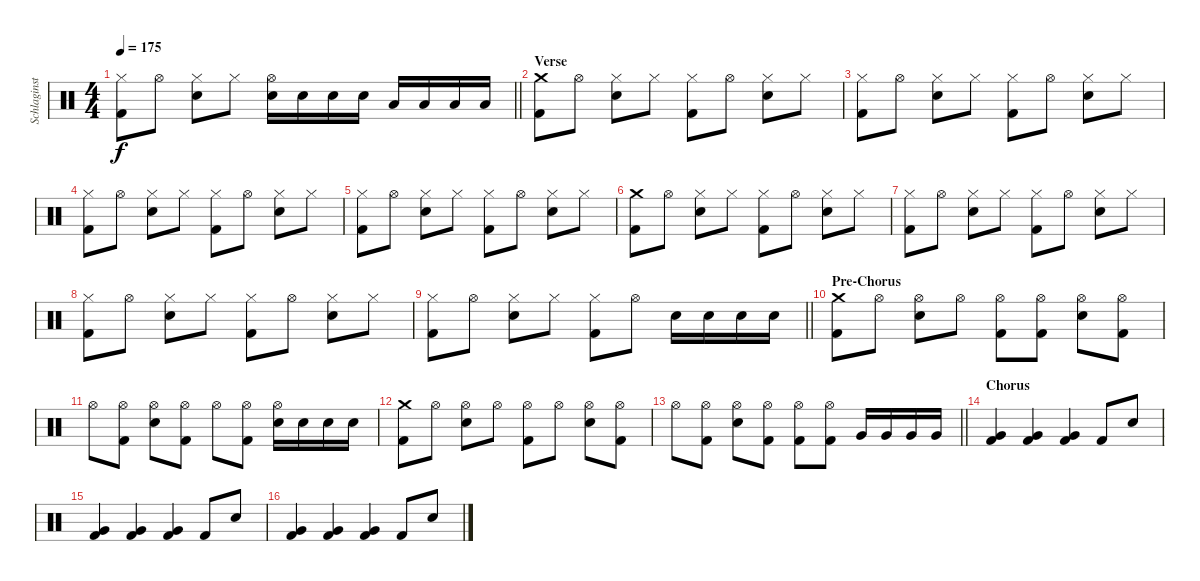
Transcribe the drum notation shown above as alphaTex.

\track ("Schlaginstrumente - Auswahl" "Schlaginst") {instrument percussion}
\staff {score}
\articulation defaults
\ts (4 4)
\tempo 175
\clef neutral
\barLineRight lightlight
\ks c
("Hi-Hat (closed)" "Kick (hit) 2").8{dy f} "Hi-Hat (open)".8 ("Hi-Hat (closed)" "Snare (hit) 2").8 "Hi-Hat (closed)".8 ("Hi-Hat (open)" "Snare (hit) 2").16 "Snare (hit) 2".16 "Snare (hit) 2".16 "Snare (hit) 2".16 "Low Tom (hit)".16 "Low Tom (hit)".16 "Low Tom (hit)".16 "Low Tom (hit)".16 |
\section ("" "Verse")
("Crash medium (hit)" "Kick (hit) 2").8 "Hi-Hat (open)".8 ("Hi-Hat (closed)" "Snare (hit) 2").8 "Hi-Hat (closed)".8 ("Hi-Hat (closed)" "Kick (hit) 2").8 "Hi-Hat (open)".8 ("Hi-Hat (closed)" "Snare (hit) 2").8 "Hi-Hat (closed)".8 |
("Hi-Hat (closed)" "Kick (hit) 2").8 "Hi-Hat (open)".8 ("Hi-Hat (closed)" "Snare (hit) 2").8 "Hi-Hat (closed)".8 ("Hi-Hat (closed)" "Kick (hit) 2").8 "Hi-Hat (open)".8 ("Hi-Hat (closed)" "Snare (hit) 2").8 "Hi-Hat (closed)".8 |
("Hi-Hat (closed)" "Kick (hit) 2").8 "Hi-Hat (open)".8 ("Hi-Hat (closed)" "Snare (hit) 2").8 "Hi-Hat (closed)".8 ("Hi-Hat (closed)" "Kick (hit) 2").8 "Hi-Hat (open)".8 ("Hi-Hat (closed)" "Snare (hit) 2").8 "Hi-Hat (closed)".8 |
("Hi-Hat (closed)" "Kick (hit) 2").8 "Hi-Hat (open)".8 ("Hi-Hat (closed)" "Snare (hit) 2").8 "Hi-Hat (closed)".8 ("Hi-Hat (closed)" "Kick (hit) 2").8 "Hi-Hat (open)".8 ("Hi-Hat (closed)" "Snare (hit) 2").8 "Hi-Hat (closed)".8 |
("Crash medium (hit)" "Kick (hit) 2").8 "Hi-Hat (open)".8 ("Hi-Hat (closed)" "Snare (hit) 2").8 "Hi-Hat (closed)".8 ("Hi-Hat (closed)" "Kick (hit) 2").8 "Hi-Hat (open)".8 ("Hi-Hat (closed)" "Snare (hit) 2").8 "Hi-Hat (closed)".8 |
("Hi-Hat (closed)" "Kick (hit) 2").8 "Hi-Hat (open)".8 ("Hi-Hat (closed)" "Snare (hit) 2").8 "Hi-Hat (closed)".8 ("Hi-Hat (closed)" "Kick (hit) 2").8 "Hi-Hat (open)".8 ("Hi-Hat (closed)" "Snare (hit) 2").8 "Hi-Hat (closed)".8 |
("Hi-Hat (closed)" "Kick (hit) 2").8 "Hi-Hat (open)".8 ("Hi-Hat (closed)" "Snare (hit) 2").8 "Hi-Hat (closed)".8 ("Hi-Hat (closed)" "Kick (hit) 2").8 "Hi-Hat (open)".8 ("Hi-Hat (closed)" "Snare (hit) 2").8 "Hi-Hat (closed)".8 |
\barLineRight lightlight
("Hi-Hat (closed)" "Kick (hit) 2").8 "Hi-Hat (open)".8 ("Hi-Hat (closed)" "Snare (hit) 2").8 "Hi-Hat (closed)".8 ("Hi-Hat (closed)" "Kick (hit) 2").8 "Hi-Hat (open)".8 "Snare (hit) 2".16 "Snare (hit) 2".16 "Snare (hit) 2".16 "Snare (hit) 2".16 |
\section ("" "Pre-Chorus")
("Crash medium (hit)" "Kick (hit) 2").8 "Hi-Hat (open)".8 ("Hi-Hat (open)" "Snare (hit) 2").8 "Hi-Hat (open)".8 ("Hi-Hat (open)" "Kick (hit) 2").8 ("Hi-Hat (open)" "Kick (hit) 2").8 ("Hi-Hat (open)" "Snare (hit) 2").8 ("Hi-Hat (open)" "Kick (hit) 2").8 |
"Hi-Hat (open)".8 ("Hi-Hat (open)" "Kick (hit) 2").8 ("Hi-Hat (open)" "Snare (hit) 2").8 ("Hi-Hat (open)" "Kick (hit) 2").8 "Hi-Hat (open)".8 ("Hi-Hat (open)" "Kick (hit) 2").8 ("Hi-Hat (open)" "Snare (hit) 2").16 "Snare (hit) 2".16 "Snare (hit) 2".16 "Snare (hit) 2".16 |
("Crash medium (hit)" "Kick (hit) 2").8 "Hi-Hat (open)".8 ("Hi-Hat (open)" "Snare (hit) 2").8 "Hi-Hat (open)".8 ("Hi-Hat (open)" "Kick (hit) 2").8 "Hi-Hat (open)".8 ("Hi-Hat (open)" "Snare (hit) 2").8 ("Hi-Hat (open)" "Kick (hit) 2").8 |
\barLineRight lightlight "Hi-Hat (open)".8
("Hi-Hat (open)" "Kick (hit) 2").8 ("Hi-Hat (open)" "Snare (hit) 2").8 ("Hi-Hat (open)" "Kick (hit) 2").8 ("Hi-Hat (open)" "Kick (hit) 2").8 ("Hi-Hat (open)" "Kick (hit) 2").8 "Very Low Tom (hit)".16 "Very Low Tom (hit)".16 "Very Low Tom (hit)".16 "Very Low Tom (hit)".16 |
\section ("" "Chorus")
("Very Low Tom (hit)" "Kick (hit) 2").4 ("Very Low Tom (hit)" "Kick (hit) 2").4 ("Very Low Tom (hit)" "Kick (hit) 2").4 "Kick (hit) 2".8 "Snare (hit) 2".8 |
("Very Low Tom (hit)" "Kick (hit) 2").4 ("Very Low Tom (hit)" "Kick (hit) 2").4 ("Very Low Tom (hit)" "Kick (hit) 2").4 "Kick (hit) 2".8 "Snare (hit) 2".8 |
("Very Low Tom (hit)" "Kick (hit) 2").4 ("Very Low Tom (hit)" "Kick (hit) 2").4 ("Very Low Tom (hit)" "Kick (hit) 2").4 "Kick (hit) 2".8 "Snare (hit) 2".8
